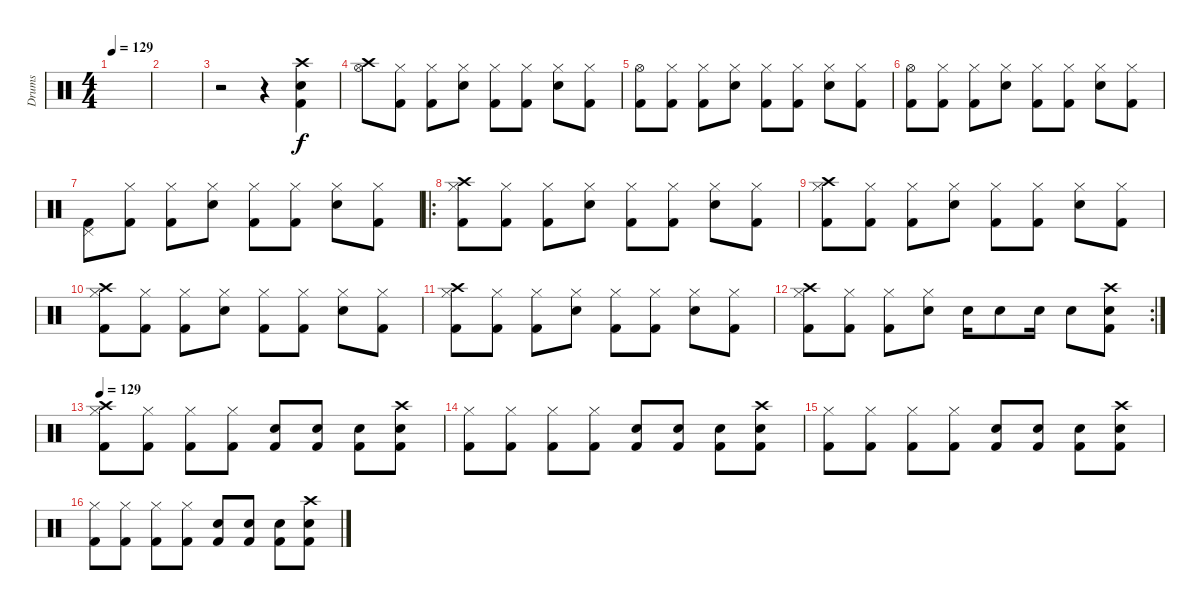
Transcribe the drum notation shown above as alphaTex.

\track ("Drums" "Drums") {instrument percussion}
\staff {score}
\articulation defaults
\ts (4 4)
\tempo 129
\clef neutral
\ks c
|
|
r.2 r.4 ("Crash high (hit)" "Kick (hit) 2" "Electric Snare (hit)").4 |
("Crash high (hit)" "Hi-Hat (open)").8 ("Kick (hit) 2" "Hi-Hat (closed)").8 ("Kick (hit) 2" "Hi-Hat (closed)").8 ("Electric Snare (hit)" "Hi-Hat (closed)").8 ("Kick (hit) 2" "Hi-Hat (closed)").8 ("Kick (hit) 2" "Hi-Hat (closed)").8 ("Electric Snare (hit)" "Hi-Hat (closed)").8 ("Kick (hit) 2" "Hi-Hat (closed)").8 |
("Kick (hit) 2" "Hi-Hat (open)").8 ("Kick (hit) 2" "Hi-Hat (closed)").8 ("Kick (hit) 2" "Hi-Hat (closed)").8 ("Electric Snare (hit)" "Hi-Hat (closed)").8 ("Kick (hit) 2" "Hi-Hat (closed)").8 ("Kick (hit) 2" "Hi-Hat (closed)").8 ("Electric Snare (hit)" "Hi-Hat (closed)").8 ("Kick (hit) 2" "Hi-Hat (closed)").8 |
("Kick (hit) 2" "Hi-Hat (open)").8 ("Kick (hit) 2" "Hi-Hat (closed)").8 ("Kick (hit) 2" "Hi-Hat (closed)").8 ("Electric Snare (hit)" "Hi-Hat (closed)").8 ("Kick (hit) 2" "Hi-Hat (closed)").8 ("Kick (hit) 2" "Hi-Hat (closed)").8 ("Electric Snare (hit)" "Hi-Hat (closed)").8 ("Kick (hit) 2" "Hi-Hat (closed)").8 |
("Kick (hit) 2" "Pedal Hi-Hat (hit)").8 ("Kick (hit) 2" "Hi-Hat (closed)").8 ("Kick (hit) 2" "Hi-Hat (closed)").8 ("Electric Snare (hit)" "Hi-Hat (closed)").8 ("Kick (hit) 2" "Hi-Hat (closed)").8 ("Kick (hit) 2" "Hi-Hat (closed)").8 ("Electric Snare (hit)" "Hi-Hat (closed)").8 ("Kick (hit) 2" "Hi-Hat (closed)").8 |
\ro
("Hi-Hat (closed)" "Kick (hit) 2" "Crash high (hit)").8 ("Kick (hit) 2" "Hi-Hat (closed)").8 ("Kick (hit) 2" "Hi-Hat (closed)").8 ("Electric Snare (hit)" "Hi-Hat (closed)").8 ("Kick (hit) 2" "Hi-Hat (closed)").8 ("Kick (hit) 2" "Hi-Hat (closed)").8 ("Electric Snare (hit)" "Hi-Hat (closed)").8 ("Kick (hit) 2" "Hi-Hat (closed)").8 |
("Hi-Hat (closed)" "Kick (hit) 2" "Crash high (hit)").8 ("Kick (hit) 2" "Hi-Hat (closed)").8 ("Kick (hit) 2" "Hi-Hat (closed)").8 ("Electric Snare (hit)" "Hi-Hat (closed)").8 ("Kick (hit) 2" "Hi-Hat (closed)").8 ("Kick (hit) 2" "Hi-Hat (closed)").8 ("Electric Snare (hit)" "Hi-Hat (closed)").8 ("Kick (hit) 2" "Hi-Hat (closed)").8 |
("Hi-Hat (closed)" "Kick (hit) 2" "Crash high (hit)").8 ("Kick (hit) 2" "Hi-Hat (closed)").8 ("Kick (hit) 2" "Hi-Hat (closed)").8 ("Electric Snare (hit)" "Hi-Hat (closed)").8 ("Kick (hit) 2" "Hi-Hat (closed)").8 ("Kick (hit) 2" "Hi-Hat (closed)").8 ("Electric Snare (hit)" "Hi-Hat (closed)").8 ("Kick (hit) 2" "Hi-Hat (closed)").8 |
("Hi-Hat (closed)" "Kick (hit) 2" "Crash high (hit)").8 ("Kick (hit) 2" "Hi-Hat (closed)").8 ("Kick (hit) 2" "Hi-Hat (closed)").8 ("Electric Snare (hit)" "Hi-Hat (closed)").8 ("Kick (hit) 2" "Hi-Hat (closed)").8 ("Kick (hit) 2" "Hi-Hat (closed)").8 ("Electric Snare (hit)" "Hi-Hat (closed)").8 ("Kick (hit) 2" "Hi-Hat (closed)").8 |
\rc 2
("Hi-Hat (closed)" "Kick (hit) 2" "Crash high (hit)").8 ("Kick (hit) 2" "Hi-Hat (closed)").8 ("Kick (hit) 2" "Hi-Hat (closed)").8 ("Electric Snare (hit)" "Hi-Hat (closed)").8 "Electric Snare (hit)".16 "Electric Snare (hit)".8 "Electric Snare (hit)".16 "Electric Snare (hit)".8 ("Kick (hit) 2" "Electric Snare (hit)" "Crash high (hit)").8 |
\tempo 129
("Crash high (hit)" "Kick (hit) 2" "Hi-Hat (closed)").8 ("Kick (hit) 2" "Hi-Hat (closed)").8 ("Kick (hit) 2" "Hi-Hat (closed)").8 ("Kick (hit) 2" "Hi-Hat (closed)").8 ("Kick (hit) 2" "Electric Snare (hit)").8 ("Kick (hit) 2" "Electric Snare (hit)").8 ("Kick (hit) 2" "Electric Snare (hit)").8 ("Crash high (hit)" "Kick (hit) 2" "Electric Snare (hit)").8 |
("Kick (hit) 2" "Hi-Hat (closed)").8 ("Kick (hit) 2" "Hi-Hat (closed)").8 ("Kick (hit) 2" "Hi-Hat (closed)").8 ("Kick (hit) 2" "Hi-Hat (closed)").8 ("Kick (hit) 2" "Electric Snare (hit)").8 ("Kick (hit) 2" "Electric Snare (hit)").8 ("Kick (hit) 2" "Electric Snare (hit)").8 ("Crash high (hit)" "Kick (hit) 2" "Electric Snare (hit)").8 |
("Kick (hit) 2" "Hi-Hat (closed)").8 ("Kick (hit) 2" "Hi-Hat (closed)").8 ("Kick (hit) 2" "Hi-Hat (closed)").8 ("Kick (hit) 2" "Hi-Hat (closed)").8 ("Kick (hit) 2" "Electric Snare (hit)").8 ("Kick (hit) 2" "Electric Snare (hit)").8 ("Kick (hit) 2" "Electric Snare (hit)").8 ("Crash high (hit)" "Kick (hit) 2" "Electric Snare (hit)").8 |
("Kick (hit) 2" "Hi-Hat (closed)").8 ("Kick (hit) 2" "Hi-Hat (closed)").8 ("Kick (hit) 2" "Hi-Hat (closed)").8 ("Kick (hit) 2" "Hi-Hat (closed)").8 ("Kick (hit) 2" "Electric Snare (hit)").8 ("Kick (hit) 2" "Electric Snare (hit)").8 ("Kick (hit) 2" "Electric Snare (hit)").8 ("Crash high (hit)" "Kick (hit) 2" "Electric Snare (hit)").8
